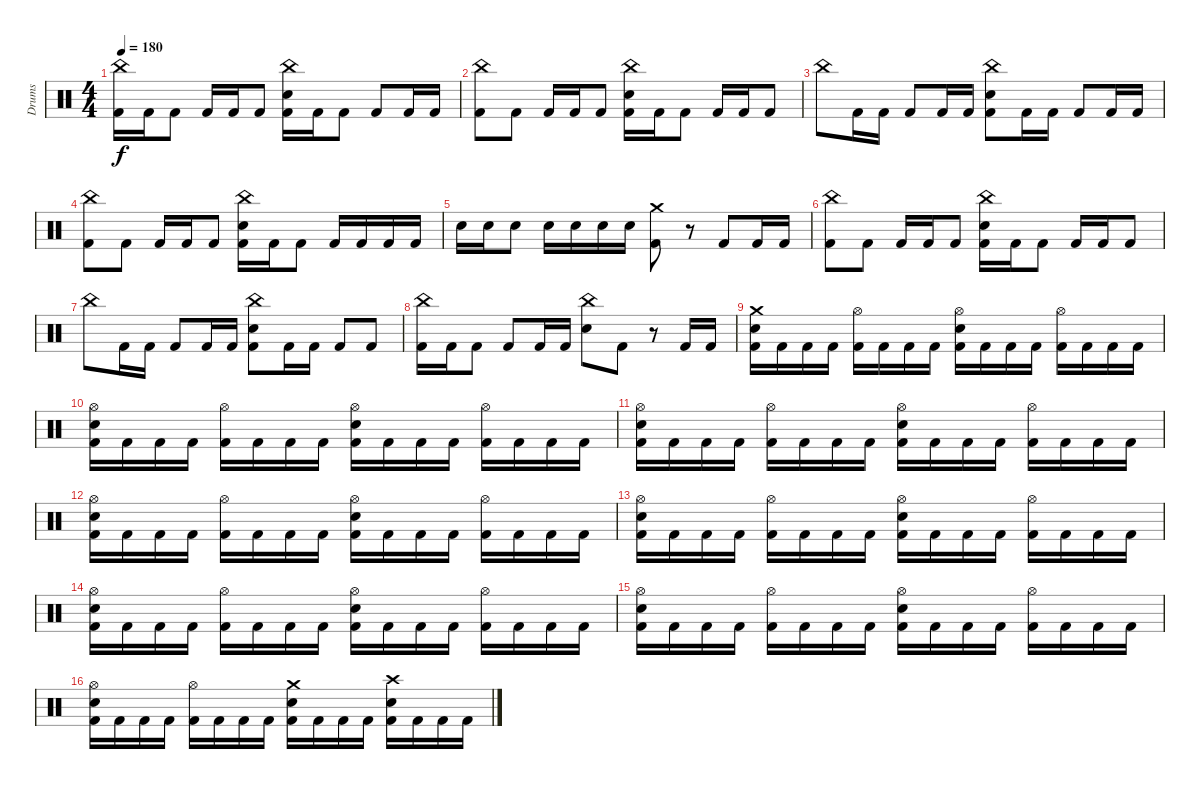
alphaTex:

\track ("Drums" "Drums") {instrument percussion}
\staff {score}
\articulation defaults
\ts (4 4)
\tempo 180
\clef neutral
\ks c
("China (hit)" "Kick (hit) 2").16{dy f} "Kick (hit) 2".16 "Kick (hit) 2".8 "Kick (hit) 2".16 "Kick (hit) 2".16 "Kick (hit) 2".8 ("China (hit)" "Electric Snare (hit)" "Kick (hit) 2").16 "Kick (hit) 2".16 "Kick (hit) 2".8 "Kick (hit) 2".8 "Kick (hit) 2".16 "Kick (hit) 2".16 |
("China (hit)" "Kick (hit) 2").8 "Kick (hit) 2".8 "Kick (hit) 2".16 "Kick (hit) 2".16 "Kick (hit) 2".8 ("China (hit)" "Electric Snare (hit)" "Kick (hit) 2").16 "Kick (hit) 2".16 "Kick (hit) 2".8 "Kick (hit) 2".16 "Kick (hit) 2".16 "Kick (hit) 2".8 |
"China (hit)".8 "Kick (hit) 2".16 "Kick (hit) 2".16 "Kick (hit) 2".8 "Kick (hit) 2".16 "Kick (hit) 2".16 ("China (hit)" "Electric Snare (hit)" "Kick (hit) 2").8 "Kick (hit) 2".16 "Kick (hit) 2".16 "Kick (hit) 2".8 "Kick (hit) 2".16 "Kick (hit) 2".16 |
("China (hit)" "Kick (hit) 2").8 "Kick (hit) 2".8 "Kick (hit) 2".16 "Kick (hit) 2".16 "Kick (hit) 2".8 ("China (hit)" "Electric Snare (hit)" "Kick (hit) 2").16 "Kick (hit) 2".16 "Kick (hit) 2".8 "Kick (hit) 2".16 "Kick (hit) 2".16 "Kick (hit) 2".16 "Kick (hit) 2".16 |
"Electric Snare (hit)".16 "Electric Snare (hit)".16 "Electric Snare (hit)".8 "Electric Snare (hit)".16 "Electric Snare (hit)".16 "Electric Snare (hit)".16 "Electric Snare (hit)".16 ("Crash medium (hit)" "Kick (hit) 2").8 r.8 "Kick (hit) 2".8 "Kick (hit) 2".16 "Kick (hit) 2".16 |
("China (hit)" "Kick (hit) 2").8 "Kick (hit) 2".8 "Kick (hit) 2".16 "Kick (hit) 2".16 "Kick (hit) 2".8 ("China (hit)" "Electric Snare (hit)" "Kick (hit) 2").16 "Kick (hit) 2".16 "Kick (hit) 2".8 "Kick (hit) 2".16 "Kick (hit) 2".16 "Kick (hit) 2".8 |
"China (hit)".8 "Kick (hit) 2".16 "Kick (hit) 2".16 "Kick (hit) 2".8 "Kick (hit) 2".16 "Kick (hit) 2".16 ("China (hit)" "Electric Snare (hit)" "Kick (hit) 2").8 "Kick (hit) 2".16 "Kick (hit) 2".16 "Kick (hit) 2".8 "Kick (hit) 2".8 |
("China (hit)" "Kick (hit) 2").16 "Kick (hit) 2".16 "Kick (hit) 2".8 "Kick (hit) 2".8 "Kick (hit) 2".16 "Kick (hit) 2".16 ("China (hit)" "Electric Snare (hit)").8 "Kick (hit) 2".8 r.8 "Kick (hit) 2".16 "Kick (hit) 2".16 |
("Crash medium (hit)" "Electric Snare (hit)" "Kick (hit) 2").16 "Kick (hit) 2".16 "Kick (hit) 2".16 "Kick (hit) 2".16 ("Hi-Hat (open)" "Kick (hit) 2").16 "Kick (hit) 2".16 "Kick (hit) 2".16 "Kick (hit) 2".16 ("Hi-Hat (open)" "Electric Snare (hit)" "Kick (hit) 2").16 "Kick (hit) 2".16 "Kick (hit) 2".16 "Kick (hit) 2".16 ("Hi-Hat (open)" "Kick (hit) 2").16 "Kick (hit) 2".16 "Kick (hit) 2".16 "Kick (hit) 2".16 |
("Hi-Hat (open)" "Electric Snare (hit)" "Kick (hit) 2").16 "Kick (hit) 2".16 "Kick (hit) 2".16 "Kick (hit) 2".16 ("Hi-Hat (open)" "Kick (hit) 2").16 "Kick (hit) 2".16 "Kick (hit) 2".16 "Kick (hit) 2".16 ("Hi-Hat (open)" "Electric Snare (hit)" "Kick (hit) 2").16 "Kick (hit) 2".16 "Kick (hit) 2".16 "Kick (hit) 2".16 ("Hi-Hat (open)" "Kick (hit) 2").16 "Kick (hit) 2".16 "Kick (hit) 2".16 "Kick (hit) 2".16 |
("Hi-Hat (open)" "Electric Snare (hit)" "Kick (hit) 2").16 "Kick (hit) 2".16 "Kick (hit) 2".16 "Kick (hit) 2".16 ("Hi-Hat (open)" "Kick (hit) 2").16 "Kick (hit) 2".16 "Kick (hit) 2".16 "Kick (hit) 2".16 ("Hi-Hat (open)" "Electric Snare (hit)" "Kick (hit) 2").16 "Kick (hit) 2".16 "Kick (hit) 2".16 "Kick (hit) 2".16 ("Hi-Hat (open)" "Kick (hit) 2").16 "Kick (hit) 2".16 "Kick (hit) 2".16 "Kick (hit) 2".16 |
("Hi-Hat (open)" "Electric Snare (hit)" "Kick (hit) 2").16 "Kick (hit) 2".16 "Kick (hit) 2".16 "Kick (hit) 2".16 ("Hi-Hat (open)" "Kick (hit) 2").16 "Kick (hit) 2".16 "Kick (hit) 2".16 "Kick (hit) 2".16 ("Hi-Hat (open)" "Electric Snare (hit)" "Kick (hit) 2").16 "Kick (hit) 2".16 "Kick (hit) 2".16 "Kick (hit) 2".16 ("Hi-Hat (open)" "Kick (hit) 2").16 "Kick (hit) 2".16 "Kick (hit) 2".16 "Kick (hit) 2".16 |
("Hi-Hat (open)" "Electric Snare (hit)" "Kick (hit) 2").16 "Kick (hit) 2".16 "Kick (hit) 2".16 "Kick (hit) 2".16 ("Hi-Hat (open)" "Kick (hit) 2").16 "Kick (hit) 2".16 "Kick (hit) 2".16 "Kick (hit) 2".16 ("Hi-Hat (open)" "Electric Snare (hit)" "Kick (hit) 2").16 "Kick (hit) 2".16 "Kick (hit) 2".16 "Kick (hit) 2".16 ("Hi-Hat (open)" "Kick (hit) 2").16 "Kick (hit) 2".16 "Kick (hit) 2".16 "Kick (hit) 2".16 |
("Hi-Hat (open)" "Electric Snare (hit)" "Kick (hit) 2").16 "Kick (hit) 2".16 "Kick (hit) 2".16 "Kick (hit) 2".16 ("Hi-Hat (open)" "Kick (hit) 2").16 "Kick (hit) 2".16 "Kick (hit) 2".16 "Kick (hit) 2".16 ("Hi-Hat (open)" "Electric Snare (hit)" "Kick (hit) 2").16 "Kick (hit) 2".16 "Kick (hit) 2".16 "Kick (hit) 2".16 ("Hi-Hat (open)" "Kick (hit) 2").16 "Kick (hit) 2".16 "Kick (hit) 2".16 "Kick (hit) 2".16 |
("Hi-Hat (open)" "Electric Snare (hit)" "Kick (hit) 2").16 "Kick (hit) 2".16 "Kick (hit) 2".16 "Kick (hit) 2".16 ("Hi-Hat (open)" "Kick (hit) 2").16 "Kick (hit) 2".16 "Kick (hit) 2".16 "Kick (hit) 2".16 ("Hi-Hat (open)" "Electric Snare (hit)" "Kick (hit) 2").16 "Kick (hit) 2".16 "Kick (hit) 2".16 "Kick (hit) 2".16 ("Hi-Hat (open)" "Kick (hit) 2").16 "Kick (hit) 2".16 "Kick (hit) 2".16 "Kick (hit) 2".16 |
("Hi-Hat (open)" "Electric Snare (hit)" "Kick (hit) 2").16 "Kick (hit) 2".16 "Kick (hit) 2".16 "Kick (hit) 2".16 ("Hi-Hat (open)" "Kick (hit) 2").16 "Kick (hit) 2".16 "Kick (hit) 2".16 "Kick (hit) 2".16 ("Crash medium (hit)" "Electric Snare (hit)" "Kick (hit) 2").16 "Kick (hit) 2".16 "Kick (hit) 2".16 "Kick (hit) 2".16 ("Crash high (hit)" "Electric Snare (hit)" "Kick (hit) 2").16 "Kick (hit) 2".16 "Kick (hit) 2".16 "Kick (hit) 2".16
